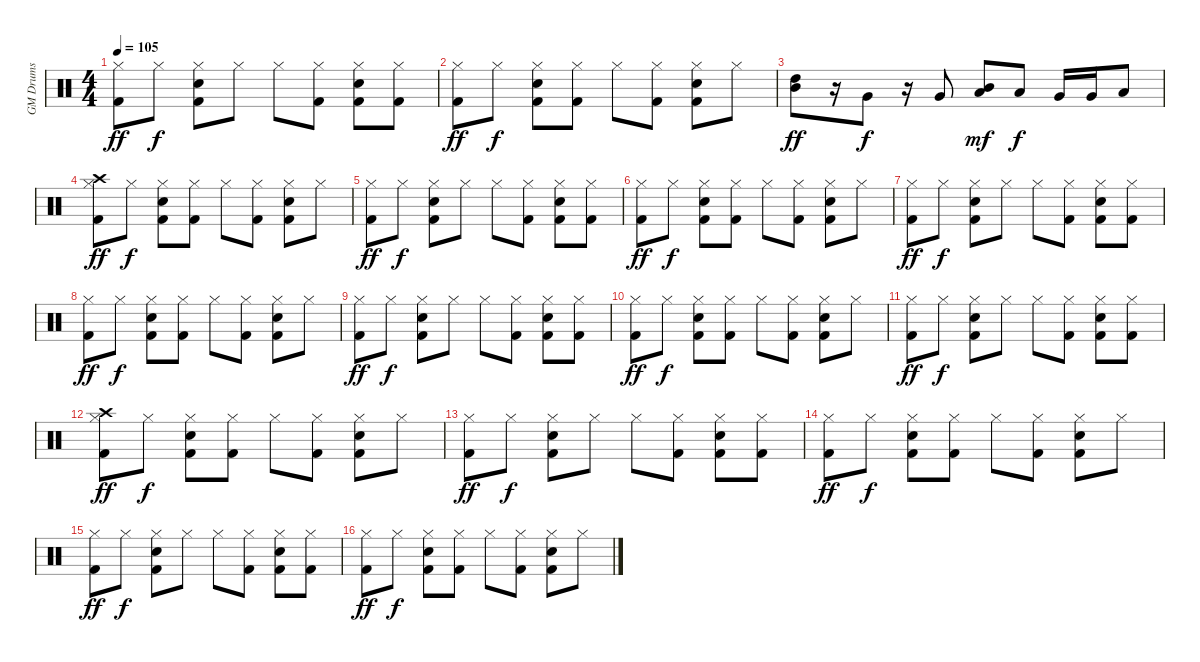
\track ("GM Drums" "GM Drums") {instrument percussion}
\staff {score}
\articulation defaults
\ts (4 4)
\tempo 105
\clef neutral
\ks c
("Kick (hit) 2" "Hi-Hat (closed)").8{dy ff} "Hi-Hat (closed)".8{dy f} ("Kick (hit) 2" "Electric Snare (hit)" "Hi-Hat (closed)").8 "Hi-Hat (closed)".8 "Hi-Hat (closed)".8 ("Kick (hit) 2" "Hi-Hat (closed)").8 ("Kick (hit) 2" "Electric Snare (hit)" "Hi-Hat (closed)").8 ("Kick (hit) 2" "Hi-Hat (closed)").8 |
("Kick (hit) 2" "Hi-Hat (closed)").8{dy ff} "Hi-Hat (closed)".8{dy f} ("Kick (hit) 2" "Electric Snare (hit)" "Hi-Hat (closed)").8 ("Kick (hit) 2" "Hi-Hat (closed)").8 "Hi-Hat (closed)".8 ("Kick (hit) 2" "Hi-Hat (closed)").8 ("Kick (hit) 2" "Electric Snare (hit)" "Hi-Hat (closed)").8 "Hi-Hat (closed)".8 |
("Mid Tom (hit)" "High Tom (hit)").8{dy ff} r.16 "Very Low Tom (hit)".8{dy f} r.16 "Very Low Tom (hit)".8 ("Low Tom (hit)" "Mid Tom (hit)").8{dy mf} "Low Tom (hit)".8{dy f} "Very Low Tom (hit)".16 "Very Low Tom (hit)".16 "Low Floor Tom (hit)".8 |
("Crash high (hit)" "Kick (hit) 2" "Hi-Hat (closed)").8{dy ff} "Hi-Hat (closed)".8{dy f} ("Kick (hit) 2" "Electric Snare (hit)" "Hi-Hat (closed)").8 ("Kick (hit) 2" "Hi-Hat (closed)").8 "Hi-Hat (closed)".8 ("Kick (hit) 2" "Hi-Hat (closed)").8 ("Kick (hit) 2" "Electric Snare (hit)" "Hi-Hat (closed)").8 "Hi-Hat (closed)".8 |
("Kick (hit) 2" "Hi-Hat (closed)").8{dy ff} "Hi-Hat (closed)".8{dy f} ("Kick (hit) 2" "Electric Snare (hit)" "Hi-Hat (closed)").8 "Hi-Hat (closed)".8 "Hi-Hat (closed)".8 ("Kick (hit) 2" "Hi-Hat (closed)").8 ("Kick (hit) 2" "Electric Snare (hit)" "Hi-Hat (closed)").8 ("Kick (hit) 2" "Hi-Hat (closed)").8 |
("Kick (hit) 2" "Hi-Hat (closed)").8{dy ff} "Hi-Hat (closed)".8{dy f} ("Kick (hit) 2" "Electric Snare (hit)" "Hi-Hat (closed)").8 ("Kick (hit) 2" "Hi-Hat (closed)").8 "Hi-Hat (closed)".8 ("Kick (hit) 2" "Hi-Hat (closed)").8 ("Kick (hit) 2" "Electric Snare (hit)" "Hi-Hat (closed)").8 "Hi-Hat (closed)".8 |
("Kick (hit) 2" "Hi-Hat (closed)").8{dy ff} "Hi-Hat (closed)".8{dy f} ("Kick (hit) 2" "Electric Snare (hit)" "Hi-Hat (closed)").8 "Hi-Hat (closed)".8 "Hi-Hat (closed)".8 ("Kick (hit) 2" "Hi-Hat (closed)").8 ("Kick (hit) 2" "Electric Snare (hit)" "Hi-Hat (closed)").8 ("Kick (hit) 2" "Hi-Hat (closed)").8 |
("Kick (hit) 2" "Hi-Hat (closed)").8{dy ff} "Hi-Hat (closed)".8{dy f} ("Kick (hit) 2" "Electric Snare (hit)" "Hi-Hat (closed)").8 ("Kick (hit) 2" "Hi-Hat (closed)").8 "Hi-Hat (closed)".8 ("Kick (hit) 2" "Hi-Hat (closed)").8 ("Kick (hit) 2" "Electric Snare (hit)" "Hi-Hat (closed)").8 "Hi-Hat (closed)".8 |
("Kick (hit) 2" "Hi-Hat (closed)").8{dy ff} "Hi-Hat (closed)".8{dy f} ("Kick (hit) 2" "Electric Snare (hit)" "Hi-Hat (closed)").8 "Hi-Hat (closed)".8 "Hi-Hat (closed)".8 ("Kick (hit) 2" "Hi-Hat (closed)").8 ("Kick (hit) 2" "Electric Snare (hit)" "Hi-Hat (closed)").8 ("Kick (hit) 2" "Hi-Hat (closed)").8 |
("Kick (hit) 2" "Hi-Hat (closed)").8{dy ff} "Hi-Hat (closed)".8{dy f} ("Kick (hit) 2" "Electric Snare (hit)" "Hi-Hat (closed)").8 ("Kick (hit) 2" "Hi-Hat (closed)").8 "Hi-Hat (closed)".8 ("Kick (hit) 2" "Hi-Hat (closed)").8 ("Kick (hit) 2" "Electric Snare (hit)" "Hi-Hat (closed)").8 "Hi-Hat (closed)".8 |
("Kick (hit) 2" "Hi-Hat (closed)").8{dy ff} "Hi-Hat (closed)".8{dy f} ("Kick (hit) 2" "Electric Snare (hit)" "Hi-Hat (closed)").8 "Hi-Hat (closed)".8 "Hi-Hat (closed)".8 ("Kick (hit) 2" "Hi-Hat (closed)").8 ("Kick (hit) 2" "Electric Snare (hit)" "Hi-Hat (closed)").8 ("Kick (hit) 2" "Hi-Hat (closed)").8 |
("Crash high (hit)" "Kick (hit) 2" "Hi-Hat (closed)").8{dy ff} "Hi-Hat (closed)".8{dy f} ("Kick (hit) 2" "Electric Snare (hit)" "Hi-Hat (closed)").8 ("Kick (hit) 2" "Hi-Hat (closed)").8 "Hi-Hat (closed)".8 ("Kick (hit) 2" "Hi-Hat (closed)").8 ("Kick (hit) 2" "Electric Snare (hit)" "Hi-Hat (closed)").8 "Hi-Hat (closed)".8 |
("Kick (hit) 2" "Hi-Hat (closed)").8{dy ff} "Hi-Hat (closed)".8{dy f} ("Kick (hit) 2" "Electric Snare (hit)" "Hi-Hat (closed)").8 "Hi-Hat (closed)".8 "Hi-Hat (closed)".8 ("Kick (hit) 2" "Hi-Hat (closed)").8 ("Kick (hit) 2" "Electric Snare (hit)" "Hi-Hat (closed)").8 ("Kick (hit) 2" "Hi-Hat (closed)").8 |
("Kick (hit) 2" "Hi-Hat (closed)").8{dy ff} "Hi-Hat (closed)".8{dy f} ("Kick (hit) 2" "Electric Snare (hit)" "Hi-Hat (closed)").8 ("Kick (hit) 2" "Hi-Hat (closed)").8 "Hi-Hat (closed)".8 ("Kick (hit) 2" "Hi-Hat (closed)").8 ("Kick (hit) 2" "Electric Snare (hit)" "Hi-Hat (closed)").8 "Hi-Hat (closed)".8 |
("Kick (hit) 2" "Hi-Hat (closed)").8{dy ff} "Hi-Hat (closed)".8{dy f} ("Kick (hit) 2" "Electric Snare (hit)" "Hi-Hat (closed)").8 "Hi-Hat (closed)".8 "Hi-Hat (closed)".8 ("Kick (hit) 2" "Hi-Hat (closed)").8 ("Kick (hit) 2" "Electric Snare (hit)" "Hi-Hat (closed)").8 ("Kick (hit) 2" "Hi-Hat (closed)").8 |
("Kick (hit) 2" "Hi-Hat (closed)").8{dy ff} "Hi-Hat (closed)".8{dy f} ("Kick (hit) 2" "Electric Snare (hit)" "Hi-Hat (closed)").8 ("Kick (hit) 2" "Hi-Hat (closed)").8 "Hi-Hat (closed)".8 ("Kick (hit) 2" "Hi-Hat (closed)").8 ("Kick (hit) 2" "Electric Snare (hit)" "Hi-Hat (closed)").8 "Hi-Hat (closed)".8
